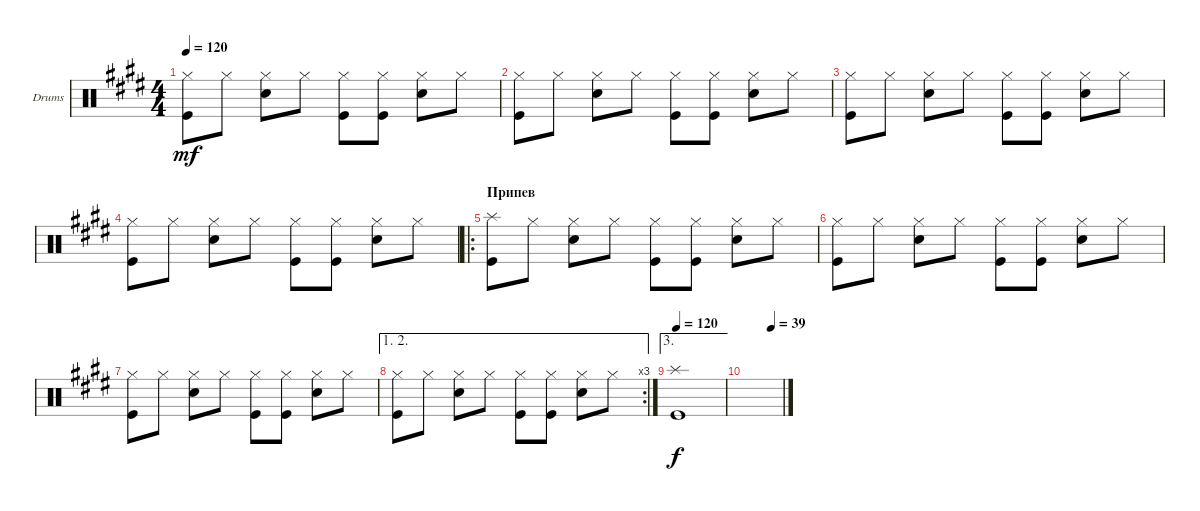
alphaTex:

\defaultSystemsLayout 4
\bracketExtendMode groupsimilarinstruments
\firstSystemTrackNameOrientation horizontal
\otherSystemsTrackNameOrientation horizontal
\track ("Drumkit" "Drums") {instrument percussion}
\staff {score}
\articulation defaults
\ts (4 4)
\tempo 120
\clef neutral
\ks c#minor
("Kick (hit)" "Hi-Hat (closed)").8{dy mf} "Hi-Hat (closed)".8 ("Hi-Hat (closed)" "Snare (hit) 2").8 "Hi-Hat (closed)".8 ("Kick (hit)" "Hi-Hat (closed)").8 ("Hi-Hat (closed)" "Kick (hit)").8 ("Hi-Hat (closed)" "Snare (hit) 2").8 "Hi-Hat (closed)".8 |
("Kick (hit)" "Hi-Hat (closed)").8 "Hi-Hat (closed)".8 ("Hi-Hat (closed)" "Snare (hit) 2").8 "Hi-Hat (closed)".8 ("Kick (hit)" "Hi-Hat (closed)").8 ("Hi-Hat (closed)" "Kick (hit)").8 ("Hi-Hat (closed)" "Snare (hit) 2").8 "Hi-Hat (closed)".8 |
("Kick (hit)" "Hi-Hat (closed)").8 "Hi-Hat (closed)".8 ("Hi-Hat (closed)" "Snare (hit) 2").8 "Hi-Hat (closed)".8 ("Kick (hit)" "Hi-Hat (closed)").8 ("Hi-Hat (closed)" "Kick (hit)").8 ("Hi-Hat (closed)" "Snare (hit) 2").8 "Hi-Hat (closed)".8 |
("Kick (hit)" "Hi-Hat (closed)").8 "Hi-Hat (closed)".8 ("Hi-Hat (closed)" "Snare (hit) 2").8 "Hi-Hat (closed)".8 ("Kick (hit)" "Hi-Hat (closed)").8 ("Hi-Hat (closed)" "Kick (hit)").8 ("Hi-Hat (closed)" "Snare (hit) 2").8 "Hi-Hat (closed)".8 |
\ro
\section ("" "Припев")
("Kick (hit)" "Splash (hit)").8 "Hi-Hat (closed)".8 ("Hi-Hat (closed)" "Snare (hit) 2").8 "Hi-Hat (closed)".8 ("Kick (hit)" "Hi-Hat (closed)").8 ("Hi-Hat (closed)" "Kick (hit)").8 ("Hi-Hat (closed)" "Snare (hit) 2").8 "Hi-Hat (closed)".8 |
("Kick (hit)" "Hi-Hat (closed)").8 "Hi-Hat (closed)".8 ("Hi-Hat (closed)" "Snare (hit) 2").8 "Hi-Hat (closed)".8 ("Kick (hit)" "Hi-Hat (closed)").8 ("Hi-Hat (closed)" "Kick (hit)").8 ("Hi-Hat (closed)" "Snare (hit) 2").8 "Hi-Hat (closed)".8 |
("Kick (hit)" "Hi-Hat (closed)").8 "Hi-Hat (closed)".8 ("Hi-Hat (closed)" "Snare (hit) 2").8 "Hi-Hat (closed)".8 ("Kick (hit)" "Hi-Hat (closed)").8 ("Hi-Hat (closed)" "Kick (hit)").8 ("Hi-Hat (closed)" "Snare (hit) 2").8 "Hi-Hat (closed)".8 |
\ae (1 2)
\rc 3
("Kick (hit)" "Hi-Hat (closed)").8 "Hi-Hat (closed)".8 ("Hi-Hat (closed)" "Snare (hit) 2").8 "Hi-Hat (closed)".8 ("Kick (hit)" "Hi-Hat (closed)").8 ("Hi-Hat (closed)" "Kick (hit)").8 ("Hi-Hat (closed)" "Snare (hit) 2").8 "Hi-Hat (closed)".8 |
\ae 3
\tempo 120
("Kick (hit)" "Splash (hit)").1{dy f} |
\tempo (39 0.70625)
